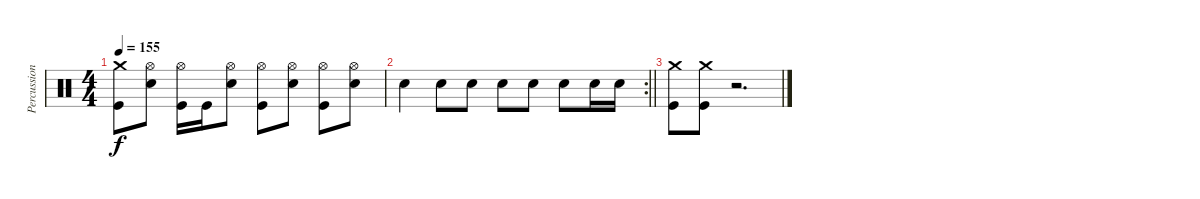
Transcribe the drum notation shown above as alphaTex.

\track ("Percussion" "Percussion") {instrument percussion}
\staff {score}
\articulation defaults
\ts (4 4)
\tempo 155
\clef neutral
\ks c
("Kick (hit)" "Crash medium (hit)").8{dy f} ("Snare (hit) 2" "Hi-Hat (open)").8 ("Kick (hit)" "Hi-Hat (open)").16 "Kick (hit)".16 ("Snare (hit) 2" "Hi-Hat (open)").8 ("Kick (hit)" "Hi-Hat (open)").8 ("Snare (hit) 2" "Hi-Hat (open)").8 ("Kick (hit)" "Hi-Hat (open)").8 ("Snare (hit) 2" "Hi-Hat (open)").8 |
\rc 2
\barLineRight lightlight "Snare (hit) 2".4 "Snare (hit) 2".8 "Snare (hit) 2".8 "Snare (hit) 2".8 "Snare (hit) 2".8 "Snare (hit) 2".8 "Snare (hit) 2".16 "Snare (hit) 2".16
|
("Kick (hit)" "Crash medium (hit)").8 ("Kick (hit)" "Crash medium (hit)").8 r.2{d}
